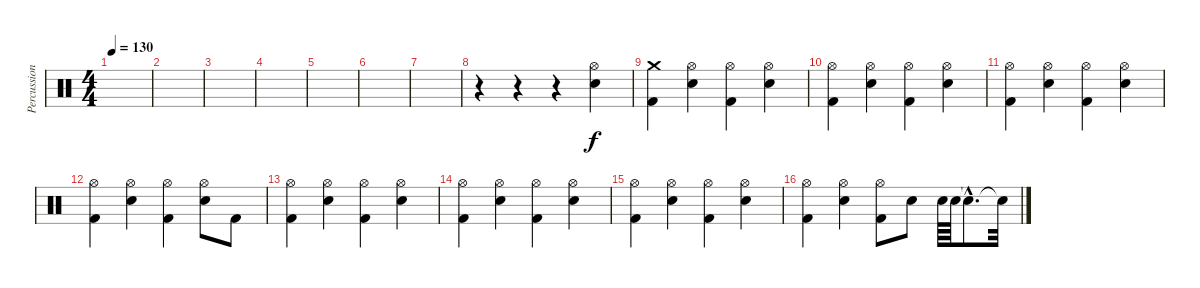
\track ("Percussions" "Percussion") {instrument percussion}
\staff {score}
\articulation defaults
\ts (4 4)
\tempo 130
\clef neutral
\ks c
|
|
|
|
|
|
|
r.4 r.4 r.4 ("Hi-Hat (open)" "Electric Snare (hit)").4 |
("Crash medium (hit)" "Kick (hit) 2").4 ("Hi-Hat (open)" "Electric Snare (hit)").4 ("Hi-Hat (open)" "Kick (hit) 2").4 ("Hi-Hat (open)" "Electric Snare (hit)").4 |
("Hi-Hat (open)" "Kick (hit) 2").4 ("Hi-Hat (open)" "Electric Snare (hit)").4 ("Hi-Hat (open)" "Kick (hit) 2").4 ("Hi-Hat (open)" "Electric Snare (hit)").4 |
("Hi-Hat (open)" "Kick (hit) 2").4 ("Hi-Hat (open)" "Electric Snare (hit)").4 ("Hi-Hat (open)" "Kick (hit) 2").4 ("Hi-Hat (open)" "Electric Snare (hit)").4 |
("Hi-Hat (open)" "Kick (hit) 2").4 ("Hi-Hat (open)" "Electric Snare (hit)").4 ("Hi-Hat (open)" "Kick (hit) 2").4 ("Hi-Hat (open)" "Electric Snare (hit)").8 "Kick (hit) 2".8 |
("Hi-Hat (open)" "Kick (hit) 2").4 ("Hi-Hat (open)" "Electric Snare (hit)").4 ("Hi-Hat (open)" "Kick (hit) 2").4 ("Hi-Hat (open)" "Electric Snare (hit)").4 |
("Hi-Hat (open)" "Kick (hit) 2").4 ("Hi-Hat (open)" "Electric Snare (hit)").4 ("Hi-Hat (open)" "Kick (hit) 2").4 ("Hi-Hat (open)" "Electric Snare (hit)").4 |
("Hi-Hat (open)" "Kick (hit) 2").4 ("Hi-Hat (open)" "Electric Snare (hit)").4 ("Hi-Hat (open)" "Kick (hit) 2").4 ("Hi-Hat (open)" "Electric Snare (hit)").4 |
("Hi-Hat (open)" "Kick (hit) 2").4 ("Hi-Hat (open)" "Electric Snare (hit)").4 ("Hi-Hat (open)" "Kick (hit) 2").8 "Electric Snare (hit)".8 "Electric Snare (hit)".64 "Electric Snare (hit)".64 "Snare (hit)"{hac t}.8{d} "Snare (hit)"{t}.32
